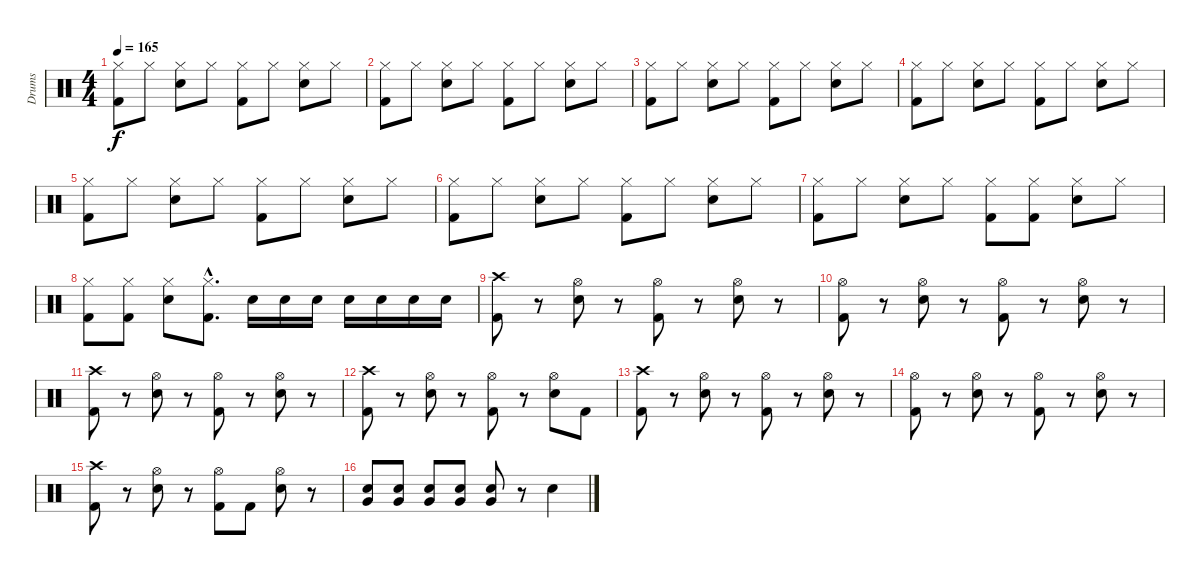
\track ("Drums" "Drums") {instrument percussion}
\staff {score}
\articulation defaults
\ts (4 4)
\tempo 165
\clef neutral
\ks c
("Kick (hit) 2" "Hi-Hat (closed)").8{dy f} "Hi-Hat (closed)".8 ("Electric Snare (hit)" "Hi-Hat (closed)").8 "Hi-Hat (closed)".8 ("Kick (hit) 2" "Hi-Hat (closed)").8 "Hi-Hat (closed)".8 ("Electric Snare (hit)" "Hi-Hat (closed)").8 "Hi-Hat (closed)".8 |
("Kick (hit) 2" "Hi-Hat (closed)").8 "Hi-Hat (closed)".8 ("Electric Snare (hit)" "Hi-Hat (closed)").8 "Hi-Hat (closed)".8 ("Kick (hit) 2" "Hi-Hat (closed)").8 "Hi-Hat (closed)".8 ("Electric Snare (hit)" "Hi-Hat (closed)").8 "Hi-Hat (closed)".8 |
("Kick (hit) 2" "Hi-Hat (closed)").8 "Hi-Hat (closed)".8 ("Electric Snare (hit)" "Hi-Hat (closed)").8 "Hi-Hat (closed)".8 ("Kick (hit) 2" "Hi-Hat (closed)").8 "Hi-Hat (closed)".8 ("Electric Snare (hit)" "Hi-Hat (closed)").8 "Hi-Hat (closed)".8 |
("Kick (hit) 2" "Hi-Hat (closed)").8 "Hi-Hat (closed)".8 ("Electric Snare (hit)" "Hi-Hat (closed)").8 "Hi-Hat (closed)".8 ("Kick (hit) 2" "Hi-Hat (closed)").8 "Hi-Hat (closed)".8 ("Electric Snare (hit)" "Hi-Hat (closed)").8 "Hi-Hat (closed)".8 |
("Kick (hit) 2" "Hi-Hat (closed)").8 "Hi-Hat (closed)".8 ("Electric Snare (hit)" "Hi-Hat (closed)").8 "Hi-Hat (closed)".8 ("Kick (hit) 2" "Hi-Hat (closed)").8 "Hi-Hat (closed)".8 ("Electric Snare (hit)" "Hi-Hat (closed)").8 "Hi-Hat (closed)".8 |
("Kick (hit) 2" "Hi-Hat (closed)").8 "Hi-Hat (closed)".8 ("Electric Snare (hit)" "Hi-Hat (closed)").8 "Hi-Hat (closed)".8 ("Kick (hit) 2" "Hi-Hat (closed)").8 "Hi-Hat (closed)".8 ("Electric Snare (hit)" "Hi-Hat (closed)").8 "Hi-Hat (closed)".8 |
("Kick (hit) 2" "Hi-Hat (closed)").8 "Hi-Hat (closed)".8 ("Electric Snare (hit)" "Hi-Hat (closed)").8 "Hi-Hat (closed)".8 ("Kick (hit) 2" "Hi-Hat (closed)").8 ("Kick (hit) 2" "Hi-Hat (closed)").8 ("Electric Snare (hit)" "Hi-Hat (closed)").8 "Hi-Hat (closed)".8 |
("Hi-Hat (closed)" "Kick (hit) 2").8 ("Hi-Hat (closed)" "Kick (hit) 2").8 ("Hi-Hat (closed)" "Snare (hit) 2").8 ("Hi-Hat (closed)"{hac} "Kick (hit) 2"{hac}).8{d} "Electric Snare (hit)".16 "Electric Snare (hit)".16 "Electric Snare (hit)".16 "Electric Snare (hit)".16 "Electric Snare (hit)".16 "Electric Snare (hit)".16 "Electric Snare (hit)".16 |
("Crash high (hit)" "Kick (hit) 2").8 r.8 ("Hi-Hat (open)" "Electric Snare (hit)").8 r.8 ("Hi-Hat (open)" "Kick (hit) 2").8 r.8 ("Hi-Hat (open)" "Electric Snare (hit)").8 r.8 |
("Hi-Hat (open)" "Kick (hit) 2").8 r.8 ("Hi-Hat (open)" "Electric Snare (hit)").8 r.8 ("Hi-Hat (open)" "Kick (hit) 2").8 r.8 ("Hi-Hat (open)" "Electric Snare (hit)").8 r.8 |
("Crash high (hit)" "Kick (hit) 2").8 r.8 ("Hi-Hat (open)" "Electric Snare (hit)").8 r.8 ("Hi-Hat (open)" "Kick (hit) 2").8 r.8 ("Hi-Hat (open)" "Electric Snare (hit)").8 r.8 |
("Crash high (hit)" "Kick (hit) 2").8 r.8 ("Hi-Hat (open)" "Electric Snare (hit)").8 r.8 ("Hi-Hat (open)" "Kick (hit) 2").8 r.8 ("Hi-Hat (open)" "Electric Snare (hit)").8 "Kick (hit) 2".8 |
("Crash high (hit)" "Kick (hit) 2").8 r.8 ("Electric Snare (hit)" "Hi-Hat (open)").8 r.8 ("Kick (hit) 2" "Hi-Hat (open)").8 r.8 ("Electric Snare (hit)" "Hi-Hat (open)").8 r.8 |
("Hi-Hat (open)" "Kick (hit) 2").8 r.8 ("Hi-Hat (open)" "Electric Snare (hit)").8 r.8 ("Hi-Hat (open)" "Kick (hit) 2").8 r.8 ("Hi-Hat (open)" "Electric Snare (hit)").8 r.8 |
("Crash high (hit)" "Kick (hit) 2").8 r.8 ("Hi-Hat (open)" "Electric Snare (hit)").8 r.8 ("Hi-Hat (open)" "Kick (hit) 2").8 "Kick (hit) 2".8 ("Hi-Hat (open)" "Electric Snare (hit)").8 r.8 |
("Very Low Tom (hit)" "Electric Snare (hit)").8 ("Very Low Tom (hit)" "Electric Snare (hit)").8 ("Very Low Tom (hit)" "Electric Snare (hit)").8 ("Very Low Tom (hit)" "Electric Snare (hit)").8 ("Very Low Tom (hit)" "Electric Snare (hit)").8 r.8 "Electric Snare (hit)".4
